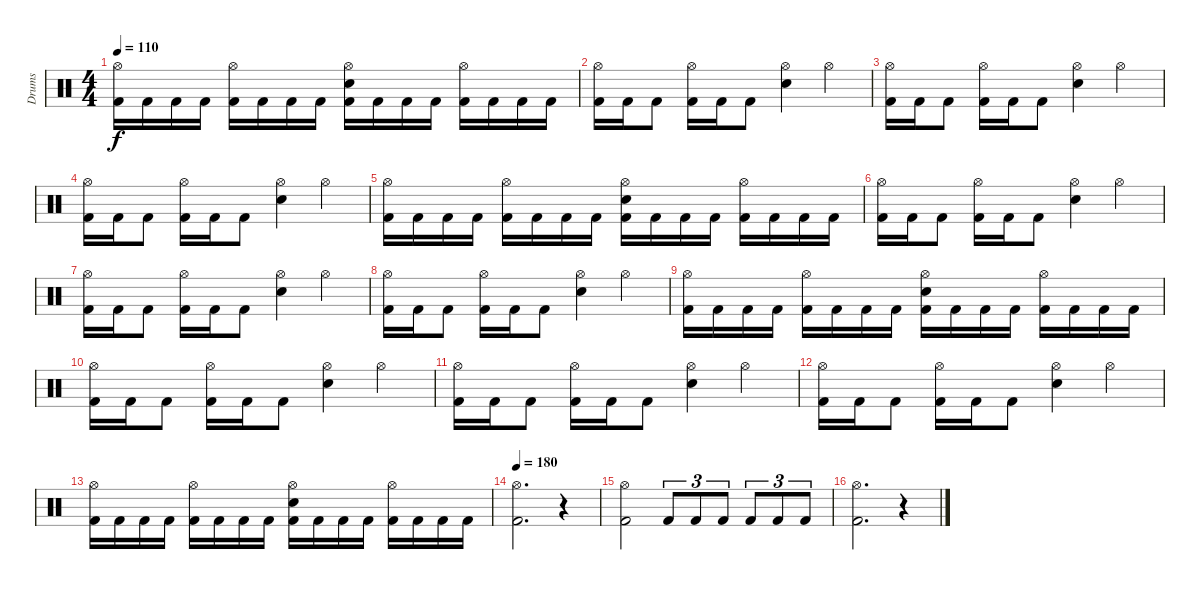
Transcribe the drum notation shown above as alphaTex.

\track ("Drums" "Drums") {instrument percussion}
\staff {score}
\articulation defaults
\ts (4 4)
\tempo 110
\clef neutral
\ks c
("Hi-Hat (open)" "Kick (hit) 2").16{dy f} "Kick (hit) 2".16 "Kick (hit) 2".16 "Kick (hit) 2".16 ("Hi-Hat (open)" "Kick (hit) 2").16 "Kick (hit) 2".16 "Kick (hit) 2".16 "Kick (hit) 2".16 ("Hi-Hat (open)" "Snare (hit) 2" "Kick (hit) 2").16 "Kick (hit) 2".16 "Kick (hit) 2".16 "Kick (hit) 2".16 ("Hi-Hat (open)" "Kick (hit) 2").16 "Kick (hit) 2".16 "Kick (hit) 2".16 "Kick (hit) 2".16 |
("Hi-Hat (open)" "Kick (hit) 2").16 "Kick (hit) 2".16 "Kick (hit) 2".8 ("Hi-Hat (open)" "Kick (hit) 2").16 "Kick (hit) 2".16 "Kick (hit) 2".8 ("Hi-Hat (open)" "Snare (hit) 2").4 "Hi-Hat (open)".4 |
("Hi-Hat (open)" "Kick (hit) 2").16 "Kick (hit) 2".16 "Kick (hit) 2".8 ("Hi-Hat (open)" "Kick (hit) 2").16 "Kick (hit) 2".16 "Kick (hit) 2".8 ("Hi-Hat (open)" "Snare (hit) 2").4 "Hi-Hat (open)".4 |
("Hi-Hat (open)" "Kick (hit) 2").16 "Kick (hit) 2".16 "Kick (hit) 2".8 ("Hi-Hat (open)" "Kick (hit) 2").16 "Kick (hit) 2".16 "Kick (hit) 2".8 ("Hi-Hat (open)" "Snare (hit) 2").4 "Hi-Hat (open)".4 |
("Hi-Hat (open)" "Kick (hit) 2").16 "Kick (hit) 2".16 "Kick (hit) 2".16 "Kick (hit) 2".16 ("Hi-Hat (open)" "Kick (hit) 2").16 "Kick (hit) 2".16 "Kick (hit) 2".16 "Kick (hit) 2".16 ("Hi-Hat (open)" "Snare (hit) 2" "Kick (hit) 2").16 "Kick (hit) 2".16 "Kick (hit) 2".16 "Kick (hit) 2".16 ("Hi-Hat (open)" "Kick (hit) 2").16 "Kick (hit) 2".16 "Kick (hit) 2".16 "Kick (hit) 2".16 |
("Hi-Hat (open)" "Kick (hit) 2").16 "Kick (hit) 2".16 "Kick (hit) 2".8 ("Hi-Hat (open)" "Kick (hit) 2").16 "Kick (hit) 2".16 "Kick (hit) 2".8 ("Hi-Hat (open)" "Snare (hit) 2").4 "Hi-Hat (open)".4 |
("Hi-Hat (open)" "Kick (hit) 2").16 "Kick (hit) 2".16 "Kick (hit) 2".8 ("Hi-Hat (open)" "Kick (hit) 2").16 "Kick (hit) 2".16 "Kick (hit) 2".8 ("Hi-Hat (open)" "Snare (hit) 2").4 "Hi-Hat (open)".4 |
("Hi-Hat (open)" "Kick (hit) 2").16 "Kick (hit) 2".16 "Kick (hit) 2".8 ("Hi-Hat (open)" "Kick (hit) 2").16 "Kick (hit) 2".16 "Kick (hit) 2".8 ("Hi-Hat (open)" "Snare (hit) 2").4 "Hi-Hat (open)".4 |
("Hi-Hat (open)" "Kick (hit) 2").16 "Kick (hit) 2".16 "Kick (hit) 2".16 "Kick (hit) 2".16 ("Hi-Hat (open)" "Kick (hit) 2").16 "Kick (hit) 2".16 "Kick (hit) 2".16 "Kick (hit) 2".16 ("Hi-Hat (open)" "Snare (hit) 2" "Kick (hit) 2").16 "Kick (hit) 2".16 "Kick (hit) 2".16 "Kick (hit) 2".16 ("Hi-Hat (open)" "Kick (hit) 2").16 "Kick (hit) 2".16 "Kick (hit) 2".16 "Kick (hit) 2".16 |
("Hi-Hat (open)" "Kick (hit) 2").16 "Kick (hit) 2".16 "Kick (hit) 2".8 ("Hi-Hat (open)" "Kick (hit) 2").16 "Kick (hit) 2".16 "Kick (hit) 2".8 ("Hi-Hat (open)" "Snare (hit) 2").4 "Hi-Hat (open)".4 |
("Hi-Hat (open)" "Kick (hit) 2").16 "Kick (hit) 2".16 "Kick (hit) 2".8 ("Hi-Hat (open)" "Kick (hit) 2").16 "Kick (hit) 2".16 "Kick (hit) 2".8 ("Hi-Hat (open)" "Snare (hit) 2").4 "Hi-Hat (open)".4 |
("Hi-Hat (open)" "Kick (hit) 2").16 "Kick (hit) 2".16 "Kick (hit) 2".8 ("Hi-Hat (open)" "Kick (hit) 2").16 "Kick (hit) 2".16 "Kick (hit) 2".8 ("Hi-Hat (open)" "Snare (hit) 2").4 "Hi-Hat (open)".4 |
("Hi-Hat (open)" "Kick (hit) 2").16 "Kick (hit) 2".16 "Kick (hit) 2".16 "Kick (hit) 2".16 ("Hi-Hat (open)" "Kick (hit) 2").16 "Kick (hit) 2".16 "Kick (hit) 2".16 "Kick (hit) 2".16 ("Hi-Hat (open)" "Snare (hit) 2" "Kick (hit) 2").16 "Kick (hit) 2".16 "Kick (hit) 2".16 "Kick (hit) 2".16 ("Hi-Hat (open)" "Kick (hit) 2").16 "Kick (hit) 2".16 "Kick (hit) 2".16 "Kick (hit) 2".16 |
\tempo 180
("Hi-Hat (open)" "Kick (hit) 2").2{d} r.4 |
("Hi-Hat (open)" "Kick (hit) 2").2 "Kick (hit) 2".8{tu (3 2)} "Kick (hit) 2".8{tu (3 2)} "Kick (hit) 2".8{tu (3 2)} "Kick (hit) 2".8{tu (3 2)} "Kick (hit) 2".8{tu (3 2)} "Kick (hit) 2".8{tu (3 2)} |
("Hi-Hat (open)" "Kick (hit) 2").2{d} r.4
